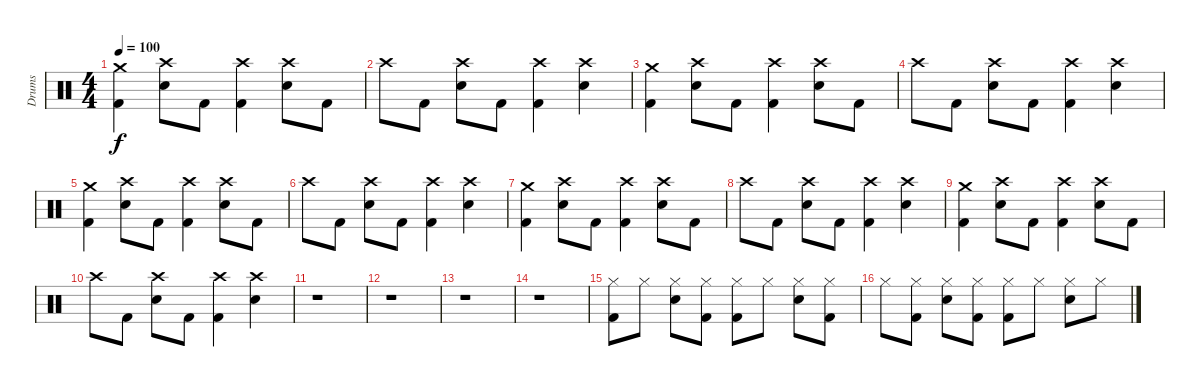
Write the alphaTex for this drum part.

\track ("Drums" "Drums") {instrument percussion}
\staff {score}
\articulation defaults
\ts (4 4)
\tempo 100
\clef neutral
\ks c
("Kick (hit) 2" "Crash medium (hit)").4{dy f} ("Electric Snare (hit)" "Crash high (hit)").8 "Kick (hit) 2".8 ("Kick (hit) 2" "Crash high (hit)").4 ("Electric Snare (hit)" "Crash high (hit)").8 "Kick (hit) 2".8 |
"Crash high (hit)".8 "Kick (hit) 2".8 ("Electric Snare (hit)" "Crash high (hit)").8 "Kick (hit) 2".8 ("Kick (hit) 2" "Crash high (hit)").4 ("Electric Snare (hit)" "Crash high (hit)").4 |
("Kick (hit) 2" "Crash medium (hit)").4 ("Electric Snare (hit)" "Crash high (hit)").8 "Kick (hit) 2".8 ("Kick (hit) 2" "Crash high (hit)").4 ("Electric Snare (hit)" "Crash high (hit)").8 "Kick (hit) 2".8 |
"Crash high (hit)".8 "Kick (hit) 2".8 ("Electric Snare (hit)" "Crash high (hit)").8 "Kick (hit) 2".8 ("Kick (hit) 2" "Crash high (hit)").4 ("Electric Snare (hit)" "Crash high (hit)").4 |
("Kick (hit) 2" "Crash medium (hit)").4 ("Electric Snare (hit)" "Crash high (hit)").8 "Kick (hit) 2".8 ("Kick (hit) 2" "Crash high (hit)").4 ("Electric Snare (hit)" "Crash high (hit)").8 "Kick (hit) 2".8 |
"Crash high (hit)".8 "Kick (hit) 2".8 ("Electric Snare (hit)" "Crash high (hit)").8 "Kick (hit) 2".8 ("Kick (hit) 2" "Crash high (hit)").4 ("Electric Snare (hit)" "Crash high (hit)").4 |
("Kick (hit) 2" "Crash medium (hit)").4 ("Electric Snare (hit)" "Crash high (hit)").8 "Kick (hit) 2".8 ("Kick (hit) 2" "Crash high (hit)").4 ("Electric Snare (hit)" "Crash high (hit)").8 "Kick (hit) 2".8 |
"Crash high (hit)".8 "Kick (hit) 2".8 ("Electric Snare (hit)" "Crash high (hit)").8 "Kick (hit) 2".8 ("Kick (hit) 2" "Crash high (hit)").4 ("Electric Snare (hit)" "Crash high (hit)").4 |
("Kick (hit) 2" "Crash medium (hit)").4 ("Electric Snare (hit)" "Crash high (hit)").8 "Kick (hit) 2".8 ("Kick (hit) 2" "Crash high (hit)").4 ("Electric Snare (hit)" "Crash high (hit)").8 "Kick (hit) 2".8 |
"Crash high (hit)".8 "Kick (hit) 2".8 ("Electric Snare (hit)" "Crash high (hit)").8 "Kick (hit) 2".8 ("Kick (hit) 2" "Crash high (hit)").4 ("Electric Snare (hit)" "Crash high (hit)").4 |
r.1 |
r.1 |
r.1 |
r.1 |
("Hi-Hat (closed)" "Kick (hit) 2").8 "Hi-Hat (closed)".8 ("Hi-Hat (closed)" "Snare (hit) 2").8 ("Hi-Hat (closed)" "Kick (hit) 2").8 ("Hi-Hat (closed)" "Kick (hit) 2").8 "Hi-Hat (closed)".8 ("Hi-Hat (closed)" "Snare (hit) 2").8 ("Hi-Hat (closed)" "Kick (hit) 2").8 |
"Hi-Hat (closed)".8 ("Hi-Hat (closed)" "Kick (hit) 2").8 ("Hi-Hat (closed)" "Snare (hit) 2").8 ("Hi-Hat (closed)" "Kick (hit) 2").8 ("Hi-Hat (closed)" "Kick (hit) 2").8 "Hi-Hat (closed)".8 ("Hi-Hat (closed)" "Snare (hit) 2").8 "Hi-Hat (closed)".8
